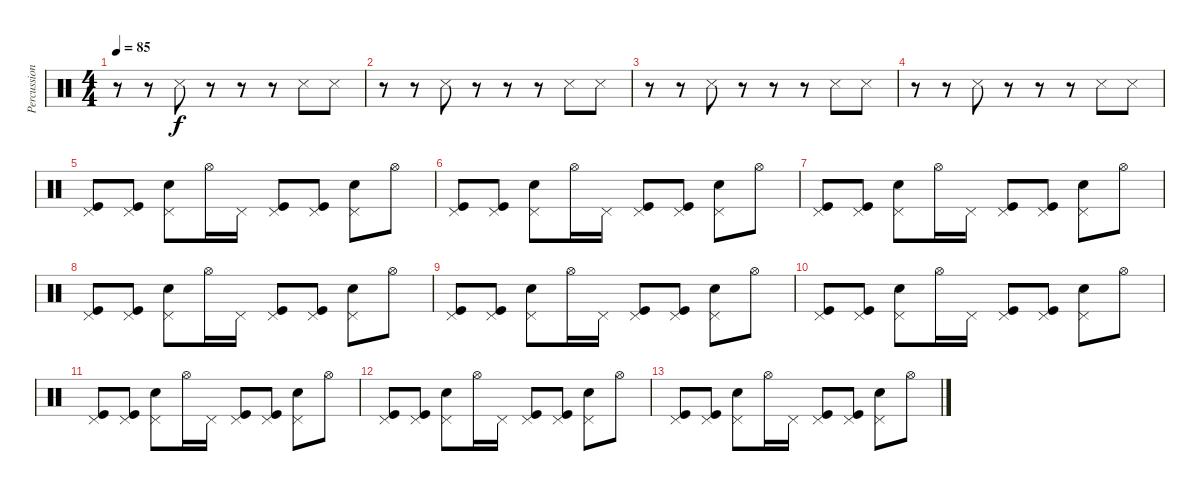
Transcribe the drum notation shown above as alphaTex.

\track ("Percussions" "Percussion") {instrument percussion}
\staff {score}
\articulation defaults
\ts (4 4)
\tempo 85
\clef neutral
\ks c
r.8{dy f} r.8 "Snare (side stick) 3".8 r.8 r.8 r.8 "Snare (side stick) 3".8 "Snare (side stick) 3".8 |
r.8 r.8 "Snare (side stick) 3".8 r.8 r.8 r.8 "Snare (side stick) 3".8 "Snare (side stick) 3".8 |
r.8 r.8 "Snare (side stick) 3".8 r.8 r.8 r.8 "Snare (side stick) 3".8 "Snare (side stick) 3".8 |
r.8 r.8 "Snare (side stick) 3".8 r.8 r.8 r.8 "Snare (side stick) 3".8 "Snare (side stick) 3".8 |
("Pedal Hi-Hat (hit)" "Kick (hit)").8{volume 16} ("Pedal Hi-Hat (hit)" "Kick (hit)").8 ("Pedal Hi-Hat (hit)" "Electric Snare (hit)").8 "Hi-Hat (open)".16 "Pedal Hi-Hat (hit)".16 ("Pedal Hi-Hat (hit)" "Kick (hit)").8 ("Pedal Hi-Hat (hit)" "Kick (hit)").8 ("Pedal Hi-Hat (hit)" "Electric Snare (hit)").8 "Hi-Hat (open)".8 |
("Pedal Hi-Hat (hit)" "Kick (hit)").8 ("Pedal Hi-Hat (hit)" "Kick (hit)").8 ("Pedal Hi-Hat (hit)" "Electric Snare (hit)").8 "Hi-Hat (open)".16 "Pedal Hi-Hat (hit)".16 ("Pedal Hi-Hat (hit)" "Kick (hit)").8 ("Pedal Hi-Hat (hit)" "Kick (hit)").8 ("Pedal Hi-Hat (hit)" "Electric Snare (hit)").8 "Hi-Hat (open)".8 |
("Pedal Hi-Hat (hit)" "Kick (hit)").8{volume 16} ("Pedal Hi-Hat (hit)" "Kick (hit)").8 ("Pedal Hi-Hat (hit)" "Electric Snare (hit)").8 "Hi-Hat (open)".16 "Pedal Hi-Hat (hit)".16 ("Pedal Hi-Hat (hit)" "Kick (hit)").8 ("Pedal Hi-Hat (hit)" "Kick (hit)").8 ("Pedal Hi-Hat (hit)" "Electric Snare (hit)").8 "Hi-Hat (open)".8 |
("Pedal Hi-Hat (hit)" "Kick (hit)").8 ("Pedal Hi-Hat (hit)" "Kick (hit)").8 ("Pedal Hi-Hat (hit)" "Electric Snare (hit)").8 "Hi-Hat (open)".16 "Pedal Hi-Hat (hit)".16 ("Pedal Hi-Hat (hit)" "Kick (hit)").8 ("Pedal Hi-Hat (hit)" "Kick (hit)").8 ("Pedal Hi-Hat (hit)" "Electric Snare (hit)").8 "Hi-Hat (open)".8 |
("Pedal Hi-Hat (hit)" "Kick (hit)").8 ("Pedal Hi-Hat (hit)" "Kick (hit)").8 ("Pedal Hi-Hat (hit)" "Electric Snare (hit)").8 "Hi-Hat (open)".16 "Pedal Hi-Hat (hit)".16 ("Pedal Hi-Hat (hit)" "Kick (hit)").8 ("Pedal Hi-Hat (hit)" "Kick (hit)").8 ("Pedal Hi-Hat (hit)" "Electric Snare (hit)").8 "Hi-Hat (open)".8 |
("Pedal Hi-Hat (hit)" "Kick (hit)").8 ("Pedal Hi-Hat (hit)" "Kick (hit)").8 ("Pedal Hi-Hat (hit)" "Electric Snare (hit)").8 "Hi-Hat (open)".16 "Pedal Hi-Hat (hit)".16 ("Pedal Hi-Hat (hit)" "Kick (hit)").8 ("Pedal Hi-Hat (hit)" "Kick (hit)").8 ("Pedal Hi-Hat (hit)" "Electric Snare (hit)").8 "Hi-Hat (open)".8 |
("Pedal Hi-Hat (hit)" "Kick (hit)").8 ("Pedal Hi-Hat (hit)" "Kick (hit)").8 ("Pedal Hi-Hat (hit)" "Electric Snare (hit)").8 "Hi-Hat (open)".16 "Pedal Hi-Hat (hit)".16 ("Pedal Hi-Hat (hit)" "Kick (hit)").8 ("Pedal Hi-Hat (hit)" "Kick (hit)").8 ("Pedal Hi-Hat (hit)" "Electric Snare (hit)").8 "Hi-Hat (open)".8 |
("Pedal Hi-Hat (hit)" "Kick (hit)").8 ("Pedal Hi-Hat (hit)" "Kick (hit)").8 ("Pedal Hi-Hat (hit)" "Electric Snare (hit)").8 "Hi-Hat (open)".16 "Pedal Hi-Hat (hit)".16 ("Pedal Hi-Hat (hit)" "Kick (hit)").8 ("Pedal Hi-Hat (hit)" "Kick (hit)").8 ("Pedal Hi-Hat (hit)" "Electric Snare (hit)").8 "Hi-Hat (open)".8 |
("Pedal Hi-Hat (hit)" "Kick (hit)").8 ("Pedal Hi-Hat (hit)" "Kick (hit)").8 ("Pedal Hi-Hat (hit)" "Electric Snare (hit)").8 "Hi-Hat (open)".16 "Pedal Hi-Hat (hit)".16 ("Pedal Hi-Hat (hit)" "Kick (hit)").8 ("Pedal Hi-Hat (hit)" "Kick (hit)").8 ("Pedal Hi-Hat (hit)" "Electric Snare (hit)").8 "Hi-Hat (open)".8
